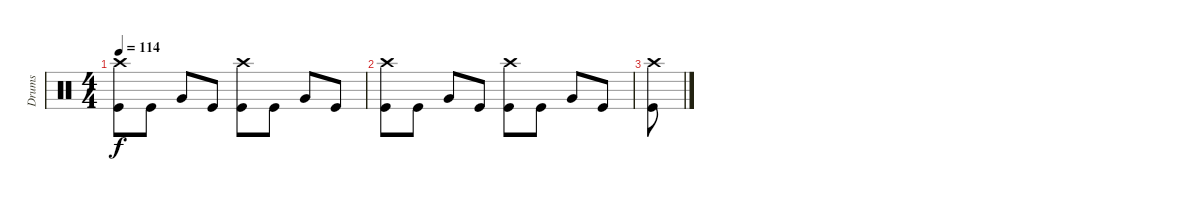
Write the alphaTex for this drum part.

\track ("Drums" "Drums") {instrument percussion}
\staff {score}
\articulation defaults
\ts (4 4)
\tempo 114
\clef neutral
\ks c
("Crash high (hit)" "Kick (hit)").8{dy f} "Kick (hit)".8 "Very Low Tom (hit)".8 "Kick (hit)".8 ("Crash high (hit)" "Kick (hit)").8 "Kick (hit)".8 "Very Low Tom (hit)".8 "Kick (hit)".8 |
("Crash high (hit)" "Kick (hit)").8 "Kick (hit)".8 "Very Low Tom (hit)".8 "Kick (hit)".8 ("Crash high (hit)" "Kick (hit)").8 "Kick (hit)".8 "Very Low Tom (hit)".8 "Kick (hit)".8 |
("Crash high (hit)" "Kick (hit)").8
